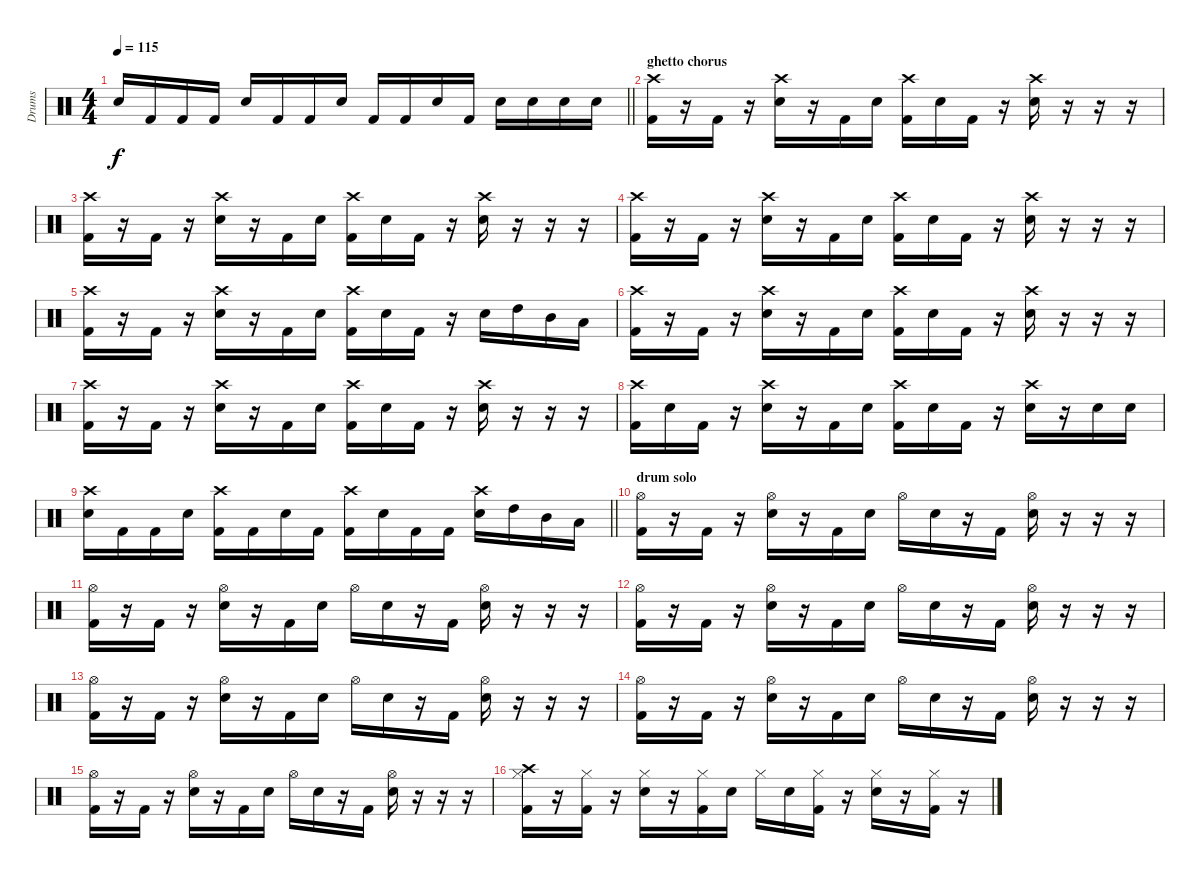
\track ("Drums" "Drums") {instrument percussion}
\staff {score}
\articulation defaults
\ts (4 4)
\tempo 115
\clef neutral
\barLineRight lightlight
\ks c "Snare (hit) 2".16{dy f} "Kick (hit) 2".16 "Kick (hit) 2".16 "Kick (hit) 2".16 "Snare (hit) 2".16 "Kick (hit) 2".16 "Kick (hit) 2".16 "Snare (hit) 2".16 "Kick (hit) 2".16 "Kick (hit) 2".16 "Snare (hit) 2".16 "Kick (hit) 2".16 "Snare (hit) 2".16 "Snare (hit) 2".16 "Snare (hit) 2".16 "Snare (hit) 2".16
|
\section ("" "ghetto chorus")
("Crash high (hit)" "Kick (hit) 2").16 r.16 "Kick (hit) 2".16 r.16 ("Crash high (hit)" "Snare (hit) 2").16 r.16 "Kick (hit) 2".16 "Snare (hit) 2".16 ("Crash high (hit)" "Kick (hit) 2").16 "Snare (hit) 2".16 "Kick (hit) 2".16 r.16 ("Crash high (hit)" "Snare (hit) 2").16 r.16 r.16 r.16 |
("Crash high (hit)" "Kick (hit) 2").16 r.16 "Kick (hit) 2".16 r.16 ("Crash high (hit)" "Snare (hit) 2").16 r.16 "Kick (hit) 2".16 "Snare (hit) 2".16 ("Crash high (hit)" "Kick (hit) 2").16 "Snare (hit) 2".16 "Kick (hit) 2".16 r.16 ("Crash high (hit)" "Snare (hit) 2").16 r.16 r.16 r.16 |
("Crash high (hit)" "Kick (hit) 2").16 r.16 "Kick (hit) 2".16 r.16 ("Crash high (hit)" "Snare (hit) 2").16 r.16 "Kick (hit) 2".16 "Snare (hit) 2".16 ("Crash high (hit)" "Kick (hit) 2").16 "Snare (hit) 2".16 "Kick (hit) 2".16 r.16 ("Crash high (hit)" "Snare (hit) 2").16 r.16 r.16 r.16 |
("Crash high (hit)" "Kick (hit) 2").16 r.16 "Kick (hit) 2".16 r.16 ("Crash high (hit)" "Snare (hit) 2").16 r.16 "Kick (hit) 2".16 "Snare (hit) 2".16 ("Crash high (hit)" "Kick (hit) 2").16 "Snare (hit) 2".16 "Kick (hit) 2".16 r.16 "Snare (hit) 2".16 "High Tom (hit)".16 "Mid Tom (hit)".16 "Low Tom (hit)".16 |
("Crash high (hit)" "Kick (hit) 2").16 r.16 "Kick (hit) 2".16 r.16 ("Crash high (hit)" "Snare (hit) 2").16 r.16 "Kick (hit) 2".16 "Snare (hit) 2".16 ("Crash high (hit)" "Kick (hit) 2").16 "Snare (hit) 2".16 "Kick (hit) 2".16 r.16 ("Crash high (hit)" "Snare (hit) 2").16 r.16 r.16 r.16 |
("Crash high (hit)" "Kick (hit) 2").16 r.16 "Kick (hit) 2".16 r.16 ("Crash high (hit)" "Snare (hit) 2").16 r.16 "Kick (hit) 2".16 "Snare (hit) 2".16 ("Crash high (hit)" "Kick (hit) 2").16 "Snare (hit) 2".16 "Kick (hit) 2".16 r.16 ("Crash high (hit)" "Snare (hit) 2").16 r.16 r.16 r.16 |
("Crash high (hit)" "Kick (hit) 2").16 "Snare (hit) 2".16 "Kick (hit) 2".16 r.16 ("Crash high (hit)" "Snare (hit) 2").16 r.16 "Kick (hit) 2".16 "Snare (hit) 2".16 ("Crash high (hit)" "Kick (hit) 2").16 "Snare (hit) 2".16 "Kick (hit) 2".16 r.16 ("Crash high (hit)" "Snare (hit) 2").16 r.16 "Snare (hit) 2".16 "Snare (hit) 2".16 |
\barLineRight lightlight
("Crash high (hit)" "Snare (hit) 2").16 "Kick (hit) 2".16 "Kick (hit) 2".16 "Snare (hit) 2".16 ("Crash high (hit)" "Kick (hit) 2").16 "Kick (hit) 2".16 "Snare (hit) 2".16 "Kick (hit) 2".16 ("Crash high (hit)" "Kick (hit) 2").16 "Snare (hit) 2".16 "Kick (hit) 2".16 "Kick (hit) 2".16 ("Crash high (hit)" "Snare (hit) 2").16 "High Tom (hit)".16 "Mid Tom (hit)".16 "Low Tom (hit)".16 |
\section ("" "drum solo")
("Hi-Hat (open)" "Kick (hit) 2").16 r.16 "Kick (hit) 2".16 r.16 ("Hi-Hat (open)" "Snare (hit) 2").16 r.16 "Kick (hit) 2".16 "Snare (hit) 2".16 "Hi-Hat (open)".16 "Snare (hit) 2".16 r.16 "Kick (hit) 2".16 ("Hi-Hat (open)" "Snare (hit) 2").16 r.16 r.16 r.16 |
("Hi-Hat (open)" "Kick (hit) 2").16 r.16 "Kick (hit) 2".16 r.16 ("Hi-Hat (open)" "Snare (hit) 2").16 r.16 "Kick (hit) 2".16 "Snare (hit) 2".16 "Hi-Hat (open)".16 "Snare (hit) 2".16 r.16 "Kick (hit) 2".16 ("Hi-Hat (open)" "Snare (hit) 2").16 r.16 r.16 r.16 |
("Hi-Hat (open)" "Kick (hit) 2").16 r.16 "Kick (hit) 2".16 r.16 ("Hi-Hat (open)" "Snare (hit) 2").16 r.16 "Kick (hit) 2".16 "Snare (hit) 2".16 "Hi-Hat (open)".16 "Snare (hit) 2".16 r.16 "Kick (hit) 2".16 ("Hi-Hat (open)" "Snare (hit) 2").16 r.16 r.16 r.16 |
("Hi-Hat (open)" "Kick (hit) 2").16 r.16 "Kick (hit) 2".16 r.16 ("Hi-Hat (open)" "Snare (hit) 2").16 r.16 "Kick (hit) 2".16 "Snare (hit) 2".16 "Hi-Hat (open)".16 "Snare (hit) 2".16 r.16 "Kick (hit) 2".16 ("Hi-Hat (open)" "Snare (hit) 2").16 r.16 r.16 r.16 |
("Hi-Hat (open)" "Kick (hit) 2").16 r.16 "Kick (hit) 2".16 r.16 ("Hi-Hat (open)" "Snare (hit) 2").16 r.16 "Kick (hit) 2".16 "Snare (hit) 2".16 "Hi-Hat (open)".16 "Snare (hit) 2".16 r.16 "Kick (hit) 2".16 ("Hi-Hat (open)" "Snare (hit) 2").16 r.16 r.16 r.16 |
("Hi-Hat (open)" "Kick (hit) 2").16 r.16 "Kick (hit) 2".16 r.16 ("Hi-Hat (open)" "Snare (hit) 2").16 r.16 "Kick (hit) 2".16 "Snare (hit) 2".16 "Hi-Hat (open)".16 "Snare (hit) 2".16 r.16 "Kick (hit) 2".16 ("Hi-Hat (open)" "Snare (hit) 2").16 r.16 r.16 r.16 |
("Crash high (hit)" "Hi-Hat (closed)" "Kick (hit) 2").16 r.16 ("Hi-Hat (closed)" "Kick (hit) 2").16 r.16 ("Hi-Hat (closed)" "Snare (hit) 2").16 r.16 ("Hi-Hat (closed)" "Kick (hit) 2").16 "Snare (hit) 2".16 "Hi-Hat (closed)".16 "Snare (hit) 2".16 ("Hi-Hat (closed)" "Kick (hit) 2").16 r.16 ("Hi-Hat (closed)" "Snare (hit) 2").16 r.16 ("Hi-Hat (closed)" "Kick (hit) 2").16 r.16
